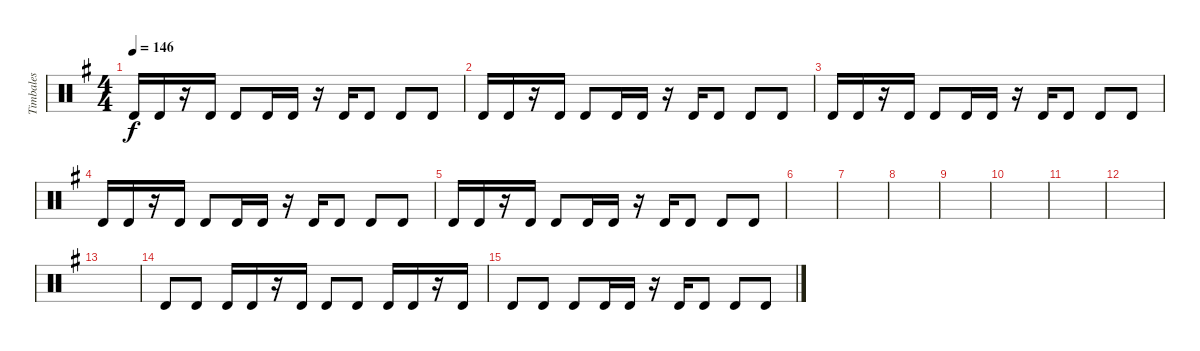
\track ("Timbales" "Timbales") {instrument percussion}
\staff {score}
\articulation defaults
\ts (4 4)
\tempo 146
\clef neutral
\ks g "Timbale high (hit)".16{dy f} "Timbale high (hit)".16
r.16 "Timbale high (hit)".16 "Timbale high (hit)".8 "Timbale high (hit)".16 "Timbale high (hit)".16 r.16 "Timbale high (hit)".16 "Timbale high (hit)".8 "Timbale high (hit)".8 "Timbale high (hit)".8 |
"Timbale high (hit)".16 "Timbale high (hit)".16 r.16 "Timbale high (hit)".16 "Timbale high (hit)".8 "Timbale high (hit)".16 "Timbale high (hit)".16 r.16 "Timbale high (hit)".16 "Timbale high (hit)".8 "Timbale high (hit)".8 "Timbale high (hit)".8 |
"Timbale high (hit)".16 "Timbale high (hit)".16 r.16 "Timbale high (hit)".16 "Timbale high (hit)".8 "Timbale high (hit)".16 "Timbale high (hit)".16 r.16 "Timbale high (hit)".16 "Timbale high (hit)".8 "Timbale high (hit)".8 "Timbale high (hit)".8 |
"Timbale high (hit)".16 "Timbale high (hit)".16 r.16 "Timbale high (hit)".16 "Timbale high (hit)".8 "Timbale high (hit)".16 "Timbale high (hit)".16 r.16 "Timbale high (hit)".16 "Timbale high (hit)".8 "Timbale high (hit)".8 "Timbale high (hit)".8 |
"Timbale high (hit)".16 "Timbale high (hit)".16 r.16 "Timbale high (hit)".16 "Timbale high (hit)".8 "Timbale high (hit)".16 "Timbale high (hit)".16 r.16 "Timbale high (hit)".16 "Timbale high (hit)".8 "Timbale high (hit)".8 "Timbale high (hit)".8 |
|
|
|
|
|
|
|
|
"Timbale high (hit)".8 "Timbale high (hit)".8 "Timbale high (hit)".16 "Timbale high (hit)".16 r.16 "Timbale high (hit)".16 "Timbale high (hit)".8 "Timbale high (hit)".8 "Timbale high (hit)".16 "Timbale high (hit)".16 r.16 "Timbale high (hit)".16 |
"Timbale high (hit)".8 "Timbale high (hit)".8 "Timbale high (hit)".8 "Timbale high (hit)".16 "Timbale high (hit)".16 r.16 "Timbale high (hit)".16 "Timbale high (hit)".8 "Timbale high (hit)".8 "Timbale high (hit)".8
